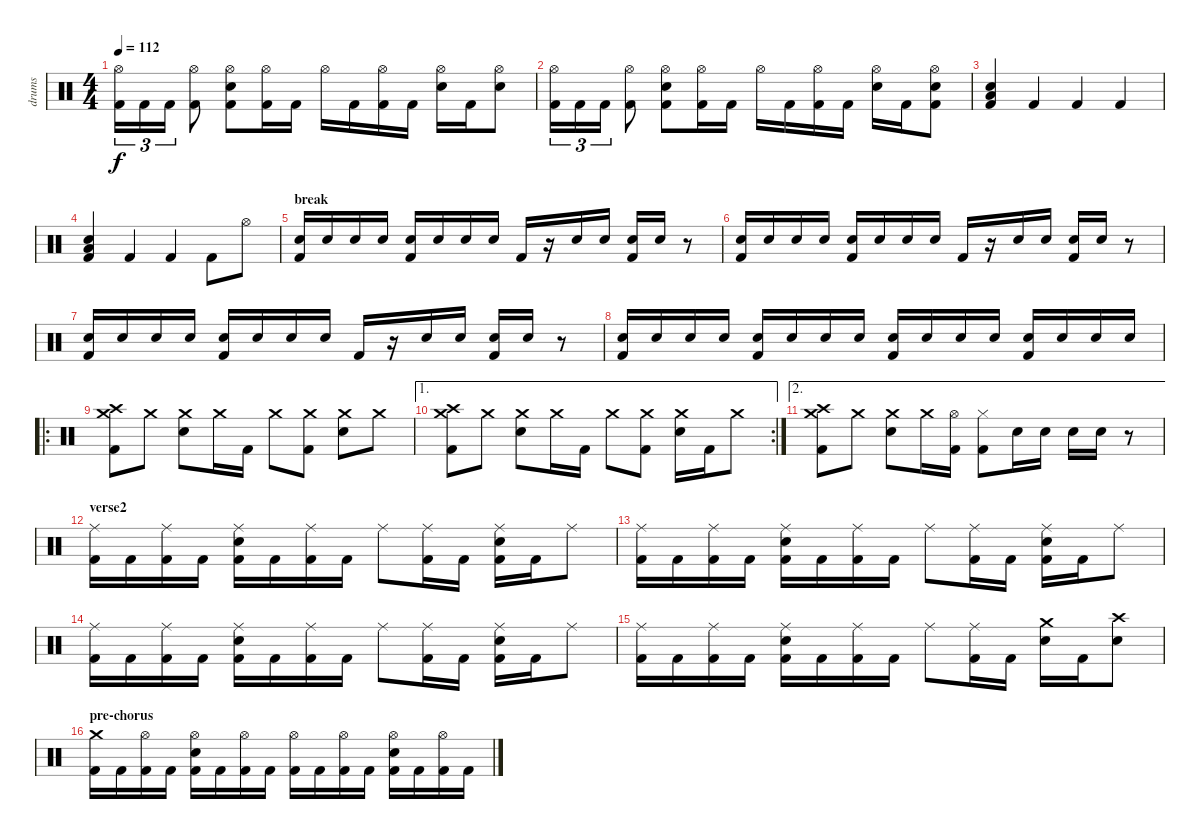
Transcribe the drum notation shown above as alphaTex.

\track ("drums" "drums") {instrument percussion}
\staff {score}
\articulation defaults
\ts (4 4)
\tempo 112
\clef neutral
\ks c
("Hi-Hat (open)" "Kick (hit) 2").16{tu (3 2) dy f} "Kick (hit) 2".16{tu (3 2)} "Kick (hit) 2".16{tu (3 2)} ("Hi-Hat (open)" "Kick (hit) 2").8 ("Hi-Hat (open)" "Electric Snare (hit)" "Kick (hit) 2").8 ("Hi-Hat (open)" "Kick (hit) 2").16 "Kick (hit) 2".16 "Hi-Hat (open)".16 "Kick (hit) 2".16 ("Hi-Hat (open)" "Kick (hit) 2").16 "Kick (hit) 2".16 ("Hi-Hat (open)" "Electric Snare (hit)").16 "Kick (hit) 2".16 ("Hi-Hat (open)" "Electric Snare (hit)").8 |
("Hi-Hat (open)" "Kick (hit) 2").16{tu (3 2)} "Kick (hit) 2".16{tu (3 2)} "Kick (hit) 2".16{tu (3 2)} ("Hi-Hat (open)" "Kick (hit) 2").8 ("Hi-Hat (open)" "Electric Snare (hit)" "Kick (hit) 2").8 ("Hi-Hat (open)" "Kick (hit) 2").16 "Kick (hit) 2".16 "Hi-Hat (open)".16 "Kick (hit) 2".16 ("Hi-Hat (open)" "Kick (hit) 2").16 "Kick (hit) 2".16 ("Hi-Hat (open)" "Electric Snare (hit)").16 "Kick (hit) 2".16 ("Hi-Hat (open)" "Electric Snare (hit)" "Kick (hit) 2").8 |
("Low Floor Tom (hit)" "Electric Snare (hit)" "Kick (hit) 2").4 "Kick (hit) 2".4 "Kick (hit) 2".4 "Kick (hit) 2".4 |
("Low Floor Tom (hit)" "Electric Snare (hit)" "Kick (hit) 2").4 "Kick (hit) 2".4 "Kick (hit) 2".4 "Kick (hit) 2".8 "Hi-Hat (open)".8 |
\section ("" "break")
("Electric Snare (hit)" "Kick (hit) 2").16 "Electric Snare (hit)".16 "Electric Snare (hit)".16 "Electric Snare (hit)".16 ("Electric Snare (hit)" "Kick (hit) 2").16 "Electric Snare (hit)".16 "Electric Snare (hit)".16 "Electric Snare (hit)".16 "Kick (hit) 2".16 r.16 "Electric Snare (hit)".16 "Electric Snare (hit)".16 ("Electric Snare (hit)" "Kick (hit) 2").16 "Electric Snare (hit)".16 r.8 |
("Electric Snare (hit)" "Kick (hit) 2").16 "Electric Snare (hit)".16 "Electric Snare (hit)".16 "Electric Snare (hit)".16 ("Electric Snare (hit)" "Kick (hit) 2").16 "Electric Snare (hit)".16 "Electric Snare (hit)".16 "Electric Snare (hit)".16 "Kick (hit) 2".16 r.16 "Electric Snare (hit)".16 "Electric Snare (hit)".16 ("Electric Snare (hit)" "Kick (hit) 2").16 "Electric Snare (hit)".16 r.8 |
("Electric Snare (hit)" "Kick (hit) 2").16 "Electric Snare (hit)".16 "Electric Snare (hit)".16 "Electric Snare (hit)".16 ("Electric Snare (hit)" "Kick (hit) 2").16 "Electric Snare (hit)".16 "Electric Snare (hit)".16 "Electric Snare (hit)".16 "Kick (hit) 2".16 r.16 "Electric Snare (hit)".16 "Electric Snare (hit)".16 ("Electric Snare (hit)" "Kick (hit) 2").16 "Electric Snare (hit)".16 r.8 |
("Electric Snare (hit)" "Kick (hit) 2").16 "Electric Snare (hit)".16 "Electric Snare (hit)".16 "Electric Snare (hit)".16 ("Electric Snare (hit)" "Kick (hit) 2").16 "Electric Snare (hit)".16 "Electric Snare (hit)".16 "Electric Snare (hit)".16 ("Electric Snare (hit)" "Kick (hit) 2").16 "Electric Snare (hit)".16 "Electric Snare (hit)".16 "Electric Snare (hit)".16 ("Electric Snare (hit)" "Kick (hit) 2").16 "Electric Snare (hit)".16 "Electric Snare (hit)".16 "Electric Snare (hit)".16 |
\ro
("Crash medium (hit)" "Crash high (hit)" "Kick (hit) 2").8 "Crash medium (hit)".8 ("Crash medium (hit)" "Electric Snare (hit)").8 "Crash medium (hit)".16 "Kick (hit) 2".16 "Crash medium (hit)".8 ("Crash medium (hit)" "Kick (hit) 2").8 ("Crash medium (hit)" "Electric Snare (hit)").8 "Crash medium (hit)".8 |
\ae 1
\rc 2
("Crash medium (hit)" "Crash high (hit)" "Kick (hit) 2").8 "Crash medium (hit)".8 ("Crash medium (hit)" "Electric Snare (hit)").8 "Crash medium (hit)".16 "Kick (hit) 2".16 "Crash medium (hit)".8 ("Crash medium (hit)" "Kick (hit) 2").8 ("Crash medium (hit)" "Electric Snare (hit)").16 "Kick (hit) 2".16 "Crash medium (hit)".8 |
\ae 2
("Crash medium (hit)" "Crash high (hit)" "Kick (hit) 2").8 "Crash medium (hit)".8 ("Crash medium (hit)" "Electric Snare (hit)").8 "Crash medium (hit)".16 ("Hi-Hat (open)" "Kick (hit) 2").16 ("Hi-Hat (closed)" "Kick (hit) 2").8 "Electric Snare (hit)".16 "Electric Snare (hit)".16 "Electric Snare (hit)".16 "Electric Snare (hit)".16 r.8 |
\section ("" "verse2")
("Ride (middle)" "Kick (hit) 2").16 "Kick (hit) 2".16 ("Ride (middle)" "Kick (hit) 2").16 "Kick (hit) 2".16 ("Ride (middle)" "Electric Snare (hit)" "Kick (hit) 2").16 "Kick (hit) 2".16 ("Ride (middle)" "Kick (hit) 2").16 "Kick (hit) 2".16 "Ride (middle)".8 ("Ride (middle)" "Kick (hit) 2").16 "Kick (hit) 2".16 ("Ride (middle)" "Electric Snare (hit)" "Kick (hit) 2").16 "Kick (hit) 2".16 "Ride (middle)".8 |
("Ride (middle)" "Kick (hit) 2").16 "Kick (hit) 2".16 ("Ride (middle)" "Kick (hit) 2").16 "Kick (hit) 2".16 ("Ride (middle)" "Electric Snare (hit)" "Kick (hit) 2").16 "Kick (hit) 2".16 ("Ride (middle)" "Kick (hit) 2").16 "Kick (hit) 2".16 "Ride (middle)".8 ("Ride (middle)" "Kick (hit) 2").16 "Kick (hit) 2".16 ("Ride (middle)" "Electric Snare (hit)" "Kick (hit) 2").16 "Kick (hit) 2".16 "Ride (middle)".8 |
("Ride (middle)" "Kick (hit) 2").16 "Kick (hit) 2".16 ("Ride (middle)" "Kick (hit) 2").16 "Kick (hit) 2".16 ("Ride (middle)" "Electric Snare (hit)" "Kick (hit) 2").16 "Kick (hit) 2".16 ("Ride (middle)" "Kick (hit) 2").16 "Kick (hit) 2".16 "Ride (middle)".8 ("Ride (middle)" "Kick (hit) 2").16 "Kick (hit) 2".16 ("Ride (middle)" "Electric Snare (hit)" "Kick (hit) 2").16 "Kick (hit) 2".16 "Ride (middle)".8 |
("Ride (middle)" "Kick (hit) 2").16 "Kick (hit) 2".16 ("Ride (middle)" "Kick (hit) 2").16 "Kick (hit) 2".16 ("Ride (middle)" "Electric Snare (hit)" "Kick (hit) 2").16 "Kick (hit) 2".16 ("Ride (middle)" "Kick (hit) 2").16 "Kick (hit) 2".16 "Ride (middle)".8 ("Ride (middle)" "Kick (hit) 2").16 "Kick (hit) 2".16 ("Crash medium (hit)" "Electric Snare (hit)").16 "Kick (hit) 2".16 ("Crash high (hit)" "Electric Snare (hit)").8 |
\section ("" "pre-chorus")
("Crash medium (hit)" "Kick (hit) 2").16 "Kick (hit) 2".16 ("Hi-Hat (open)" "Kick (hit) 2").16 "Kick (hit) 2".16 ("Hi-Hat (open)" "Electric Snare (hit)" "Kick (hit) 2").16 "Kick (hit) 2".16 ("Hi-Hat (open)" "Kick (hit) 2").16 "Kick (hit) 2".16 ("Hi-Hat (open)" "Kick (hit) 2").16 "Kick (hit) 2".16 ("Hi-Hat (open)" "Kick (hit) 2").16 "Kick (hit) 2".16 ("Hi-Hat (open)" "Electric Snare (hit)" "Kick (hit) 2").16 "Kick (hit) 2".16 ("Hi-Hat (open)" "Kick (hit) 2").16 "Kick (hit) 2".16
